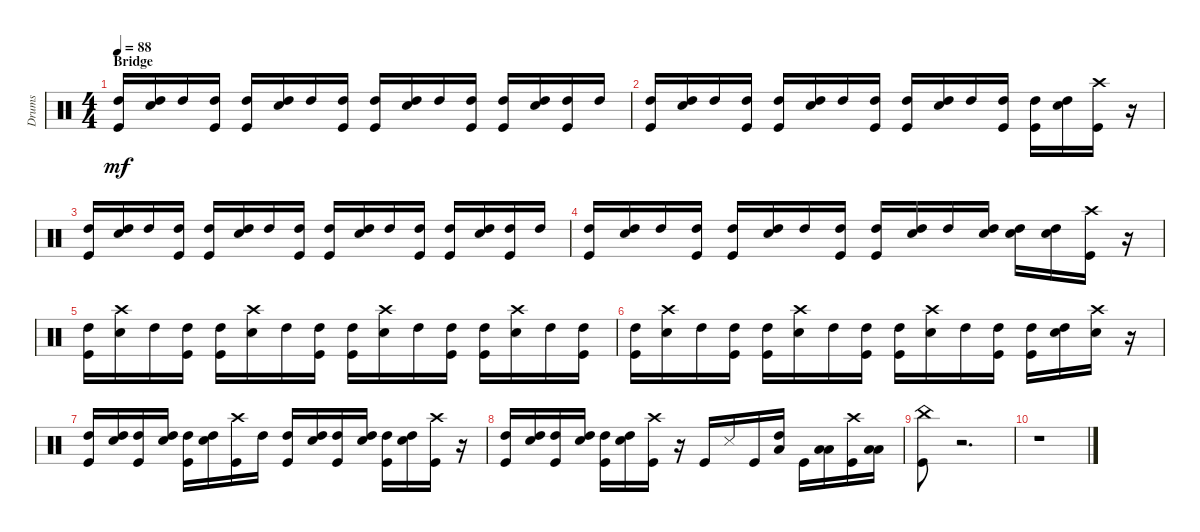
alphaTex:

\track ("Drums" "Drums") {instrument percussion}
\staff {score}
\articulation defaults
\ts (4 4)
\section ("" "Bridge")
\tempo 88
\clef neutral
\ks c
("Kick (hit)" "High Tom (hit)").16{dy mf} ("Snare (hit) 2" "High Tom (hit)").16 "High Tom (hit)".16 ("Kick (hit)" "High Tom (hit)").16 ("Kick (hit)" "High Tom (hit)").16 ("High Tom (hit)" "Snare (hit) 2").16 "High Tom (hit)".16 ("High Tom (hit)" "Kick (hit)").16 ("High Tom (hit)" "Kick (hit)").16 ("High Tom (hit)" "Snare (hit) 2").16 "High Tom (hit)".16 ("Kick (hit)" "High Tom (hit)").16 ("Kick (hit)" "High Tom (hit)").16 ("High Tom (hit)" "Snare (hit) 2").16 ("High Tom (hit)" "Kick (hit)").16 "High Tom (hit)".16 |
("Kick (hit)" "High Tom (hit)").16 ("Snare (hit) 2" "High Tom (hit)").16 "High Tom (hit)".16 ("Kick (hit)" "High Tom (hit)").16 ("Kick (hit)" "High Tom (hit)").16 ("High Tom (hit)" "Snare (hit) 2").16 "High Tom (hit)".16 ("High Tom (hit)" "Kick (hit)").16 ("High Tom (hit)" "Kick (hit)").16 ("High Tom (hit)" "Snare (hit) 2").16 "High Tom (hit)".16 ("Kick (hit)" "High Tom (hit)").16 ("Kick (hit)" "High Tom (hit)").16 ("High Tom (hit)" "Snare (hit) 2").16 ("Kick (hit)" "Crash high (hit)").16 r.16 |
("Kick (hit)" "High Tom (hit)").16 ("Snare (hit) 2" "High Tom (hit)").16 "High Tom (hit)".16 ("Kick (hit)" "High Tom (hit)").16 ("Kick (hit)" "High Tom (hit)").16 ("High Tom (hit)" "Snare (hit) 2").16 "High Tom (hit)".16 ("High Tom (hit)" "Kick (hit)").16 ("High Tom (hit)" "Kick (hit)").16 ("High Tom (hit)" "Snare (hit) 2").16 "High Tom (hit)".16 ("Kick (hit)" "High Tom (hit)").16 ("Kick (hit)" "High Tom (hit)").16 ("High Tom (hit)" "Snare (hit) 2").16 ("Kick (hit)" "High Tom (hit)").16 "High Tom (hit)".16 |
("Kick (hit)" "High Tom (hit)").16 ("Snare (hit) 2" "High Tom (hit)").16 "High Tom (hit)".16 ("Kick (hit)" "High Tom (hit)").16 ("Kick (hit)" "High Tom (hit)").16 ("High Tom (hit)" "Snare (hit) 2").16 "High Tom (hit)".16 ("High Tom (hit)" "Kick (hit)").16 ("High Tom (hit)" "Kick (hit)").16 ("High Tom (hit)" "Snare (hit) 2").16 "High Tom (hit)".16 ("High Tom (hit)" "Snare (hit) 2").16 ("High Tom (hit)" "Snare (hit) 2").16 ("High Tom (hit)" "Snare (hit) 2").16 ("Kick (hit)" "Crash high (hit)").16 r.16 |
("Kick (hit)" "High Tom (hit)").16 ("Snare (hit) 2" "Crash high (hit)").16 "High Tom (hit)".16 ("Kick (hit)" "High Tom (hit)").16 ("Kick (hit)" "High Tom (hit)").16 ("Snare (hit) 2" "Crash high (hit)").16 "High Tom (hit)".16 ("High Tom (hit)" "Kick (hit)").16 ("High Tom (hit)" "Kick (hit)").16 ("Snare (hit) 2" "Crash high (hit)").16 "High Tom (hit)".16 ("Kick (hit)" "High Tom (hit)").16 ("Kick (hit)" "High Tom (hit)").16 ("Snare (hit) 2" "Crash high (hit)").16 "High Tom (hit)".16 ("High Tom (hit)" "Kick (hit)").16 |
("Kick (hit)" "High Tom (hit)").16 ("Snare (hit) 2" "Crash high (hit)").16 "High Tom (hit)".16 ("Kick (hit)" "High Tom (hit)").16 ("Kick (hit)" "High Tom (hit)").16 ("Snare (hit) 2" "Crash high (hit)").16 "High Tom (hit)".16 ("High Tom (hit)" "Kick (hit)").16 ("High Tom (hit)" "Kick (hit)").16 ("Snare (hit) 2" "Crash high (hit)").16 "High Tom (hit)".16 ("Kick (hit)" "High Tom (hit)").16 ("Kick (hit)" "High Tom (hit)").16 ("High Tom (hit)" "Snare (hit) 2").16 ("Crash high (hit)" "Snare (hit) 2").16 r.16 |
("Kick (hit)" "High Tom (hit)").16 ("Snare (hit) 2" "High Tom (hit)").16 ("High Tom (hit)" "Kick (hit)").16 ("High Tom (hit)" "Snare (hit) 2").16 ("Kick (hit)" "High Tom (hit)").16 ("High Tom (hit)" "Snare (hit) 2").16 ("Kick (hit)" "Crash high (hit)").16 "High Tom (hit)".16 ("High Tom (hit)" "Kick (hit)").16 ("High Tom (hit)" "Snare (hit) 2").16 ("High Tom (hit)" "Kick (hit)").16 ("High Tom (hit)" "Snare (hit) 2").16 ("Kick (hit)" "High Tom (hit)").16 ("High Tom (hit)" "Snare (hit) 2").16 ("Kick (hit)" "Crash high (hit)").16 r.16 |
("Kick (hit)" "High Tom (hit)").16 ("Snare (hit) 2" "High Tom (hit)").16 ("High Tom (hit)" "Kick (hit)").16 ("High Tom (hit)" "Snare (hit) 2").16 ("Kick (hit)" "High Tom (hit)").16 ("High Tom (hit)" "Snare (hit) 2").16 ("Kick (hit)" "Crash high (hit)").16 r.16 "Kick (hit)".16 "Snare (side stick) 3".16 "Kick (hit)".16 ("High Tom (hit)" "Low Tom (hit)").16 "Kick (hit)".16 ("Low Floor Tom (hit)" "Low Tom (hit)").16 ("Kick (hit)" "Crash high (hit)").16 ("Low Floor Tom (hit)" "Low Tom (hit)").16 |
("Kick (hit)" "China (hit)").8 r.2{d} |
r.1
